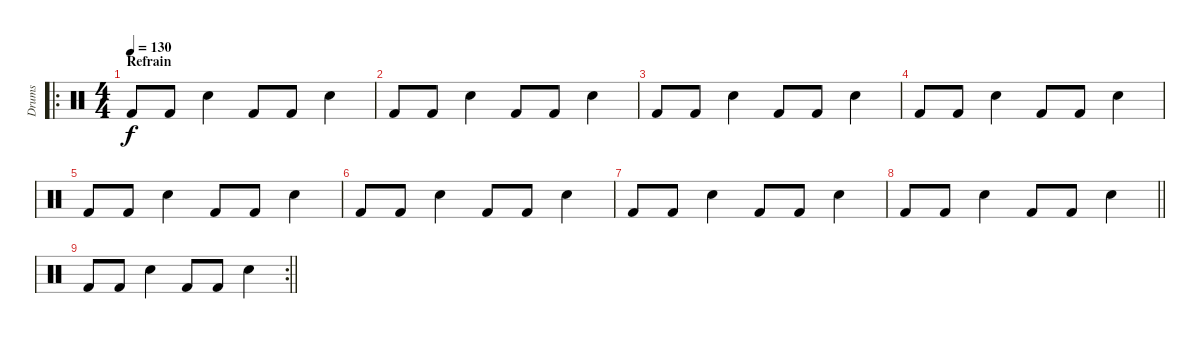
\track ("Drums" "Drums") {instrument percussion}
\staff {score}
\articulation defaults
\ro
\ts (4 4)
\section ("" "Refrain")
\tempo 130
\clef neutral
\ks c "Kick (hit) 2".8{dy f} "Kick (hit) 2".8 "Snare (hit) 2".4 "Kick (hit) 2".8 "Kick (hit) 2".8 "Snare (hit) 2".4
|
"Kick (hit) 2".8 "Kick (hit) 2".8 "Snare (hit) 2".4 "Kick (hit) 2".8 "Kick (hit) 2".8 "Snare (hit) 2".4 |
"Kick (hit) 2".8 "Kick (hit) 2".8 "Snare (hit) 2".4 "Kick (hit) 2".8 "Kick (hit) 2".8 "Snare (hit) 2".4 |
"Kick (hit) 2".8 "Kick (hit) 2".8 "Snare (hit) 2".4 "Kick (hit) 2".8 "Kick (hit) 2".8 "Snare (hit) 2".4 |
"Kick (hit) 2".8 "Kick (hit) 2".8 "Snare (hit) 2".4 "Kick (hit) 2".8 "Kick (hit) 2".8 "Snare (hit) 2".4 |
"Kick (hit) 2".8 "Kick (hit) 2".8 "Snare (hit) 2".4 "Kick (hit) 2".8 "Kick (hit) 2".8 "Snare (hit) 2".4 |
"Kick (hit) 2".8 "Kick (hit) 2".8 "Snare (hit) 2".4 "Kick (hit) 2".8 "Kick (hit) 2".8 "Snare (hit) 2".4 |
\barLineRight lightlight "Kick (hit) 2".8 "Kick (hit) 2".8 "Snare (hit) 2".4 "Kick (hit) 2".8 "Kick (hit) 2".8 "Snare (hit) 2".4
|
\rc 2
\barLineRight lightlight "Kick (hit) 2".8 "Kick (hit) 2".8 "Snare (hit) 2".4 "Kick (hit) 2".8 "Kick (hit) 2".8 "Snare (hit) 2".4
